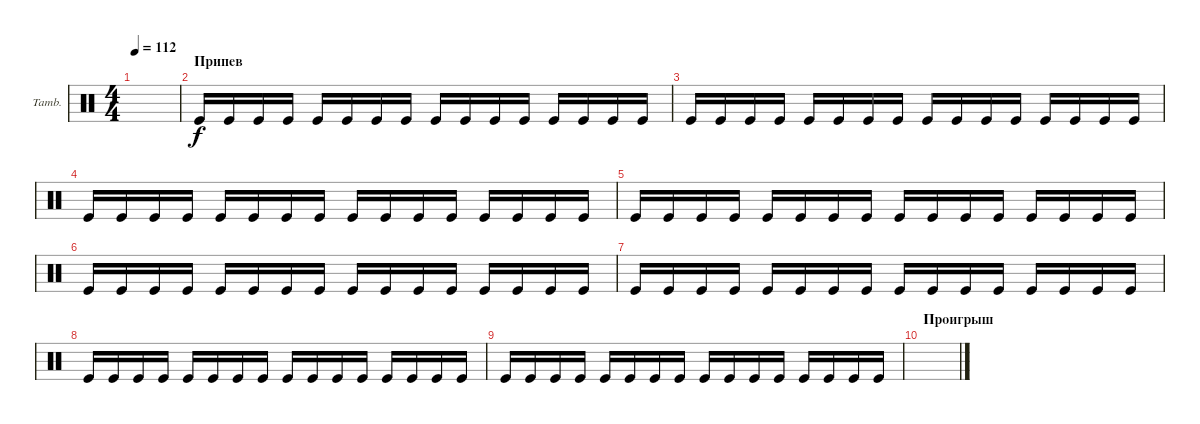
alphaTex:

\defaultSystemsLayout 4
\bracketExtendMode groupsimilarinstruments
\firstSystemTrackNameOrientation horizontal
\otherSystemsTrackNameOrientation horizontal
\track ("Tambourine" "Tamb.") {instrument percussion}
\staff {score}
\articulation defaults
\ts (4 4)
\tempo 112
\clef neutral
\ks c
|
\section ("" "Припев")
"Kick (hit)".16 "Kick (hit)".16 "Kick (hit)".16 "Kick (hit)".16 "Kick (hit)".16 "Kick (hit)".16 "Kick (hit)".16 "Kick (hit)".16 "Kick (hit)".16 "Kick (hit)".16 "Kick (hit)".16 "Kick (hit)".16 "Kick (hit)".16 "Kick (hit)".16 "Kick (hit)".16 "Kick (hit)".16 |
"Kick (hit)".16 "Kick (hit)".16 "Kick (hit)".16 "Kick (hit)".16 "Kick (hit)".16 "Kick (hit)".16 "Kick (hit)".16 "Kick (hit)".16 "Kick (hit)".16 "Kick (hit)".16 "Kick (hit)".16 "Kick (hit)".16 "Kick (hit)".16 "Kick (hit)".16 "Kick (hit)".16 "Kick (hit)".16 |
"Kick (hit)".16 "Kick (hit)".16 "Kick (hit)".16 "Kick (hit)".16 "Kick (hit)".16 "Kick (hit)".16 "Kick (hit)".16 "Kick (hit)".16 "Kick (hit)".16 "Kick (hit)".16 "Kick (hit)".16 "Kick (hit)".16 "Kick (hit)".16 "Kick (hit)".16 "Kick (hit)".16 "Kick (hit)".16 |
"Kick (hit)".16 "Kick (hit)".16 "Kick (hit)".16 "Kick (hit)".16 "Kick (hit)".16 "Kick (hit)".16 "Kick (hit)".16 "Kick (hit)".16 "Kick (hit)".16 "Kick (hit)".16 "Kick (hit)".16 "Kick (hit)".16 "Kick (hit)".16 "Kick (hit)".16 "Kick (hit)".16 "Kick (hit)".16 |
"Kick (hit)".16 "Kick (hit)".16 "Kick (hit)".16 "Kick (hit)".16 "Kick (hit)".16 "Kick (hit)".16 "Kick (hit)".16 "Kick (hit)".16 "Kick (hit)".16 "Kick (hit)".16 "Kick (hit)".16 "Kick (hit)".16 "Kick (hit)".16 "Kick (hit)".16 "Kick (hit)".16 "Kick (hit)".16 |
"Kick (hit)".16 "Kick (hit)".16 "Kick (hit)".16 "Kick (hit)".16 "Kick (hit)".16 "Kick (hit)".16 "Kick (hit)".16 "Kick (hit)".16 "Kick (hit)".16 "Kick (hit)".16 "Kick (hit)".16 "Kick (hit)".16 "Kick (hit)".16 "Kick (hit)".16 "Kick (hit)".16 "Kick (hit)".16 |
"Kick (hit)".16 "Kick (hit)".16 "Kick (hit)".16 "Kick (hit)".16 "Kick (hit)".16 "Kick (hit)".16 "Kick (hit)".16 "Kick (hit)".16 "Kick (hit)".16 "Kick (hit)".16 "Kick (hit)".16 "Kick (hit)".16 "Kick (hit)".16 "Kick (hit)".16 "Kick (hit)".16 "Kick (hit)".16 |
"Kick (hit)".16 "Kick (hit)".16 "Kick (hit)".16 "Kick (hit)".16 "Kick (hit)".16 "Kick (hit)".16 "Kick (hit)".16 "Kick (hit)".16 "Kick (hit)".16 "Kick (hit)".16 "Kick (hit)".16 "Kick (hit)".16 "Kick (hit)".16 "Kick (hit)".16 "Kick (hit)".16 "Kick (hit)".16 |
\section ("" "Проигрыш")
